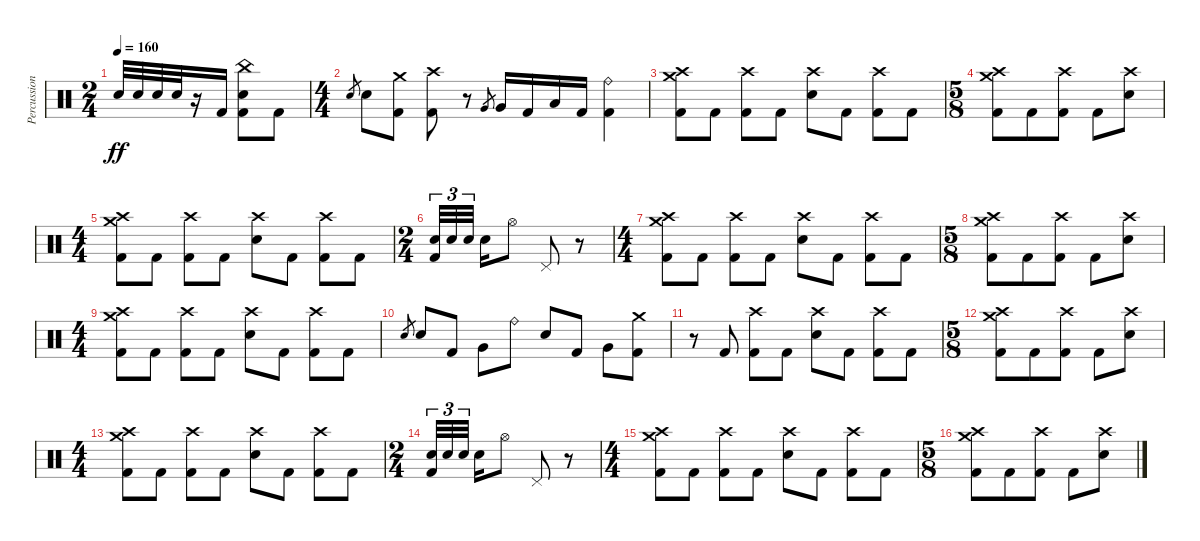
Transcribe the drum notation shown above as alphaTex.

\track ("Percussion" "Percussion") {instrument percussion}
\staff {score}
\articulation defaults
\ts (2 4)
\tempo 160
\clef neutral
\ks c "Electric Snare (hit)".32{dy ff} "Electric Snare (hit)".32 "Electric Snare (hit)".32 "Electric Snare (hit)".32
r.16 "Kick (hit) 2".16 ("China (hit)" "Electric Snare (hit)" "Kick (hit) 2").8 "Kick (hit) 2".8 |
\ts (4 4)
"Electric Snare (hit)".8{gr} "Electric Snare (hit)".8 ("Crash medium (hit)" "Kick (hit) 2").8 ("Crash high (hit)" "Kick (hit) 2").8 r.8 "Very Low Tom (hit)".8{gr} "Very Low Tom (hit)".16 "Kick (hit) 2".16 "Low Tom (hit)".16 "Kick (hit) 2".16 ("Ride (bell)" "Kick (hit) 2").4 |
("Crash high (hit)" "Crash medium (hit)" "Kick (hit) 2").8 "Kick (hit) 2".8 ("Crash high (hit)" "Kick (hit) 2").8 "Kick (hit) 2".8 ("Crash high (hit)" "Electric Snare (hit)").8 "Kick (hit) 2".8 ("Crash high (hit)" "Kick (hit) 2").8 "Kick (hit) 2".8 |
\ts (5 8)
("Crash high (hit)" "Crash medium (hit)" "Kick (hit) 2").8 "Kick (hit) 2".8 ("Crash high (hit)" "Kick (hit) 2").8 "Kick (hit) 2".8 ("Crash high (hit)" "Electric Snare (hit)").8 |
\ts (4 4)
("Crash high (hit)" "Crash medium (hit)" "Kick (hit) 2").8 "Kick (hit) 2".8 ("Crash high (hit)" "Kick (hit) 2").8 "Kick (hit) 2".8 ("Crash high (hit)" "Electric Snare (hit)").8 "Kick (hit) 2".8 ("Crash high (hit)" "Kick (hit) 2").8 "Kick (hit) 2".8 |
\ts (2 4)
("Electric Snare (hit)" "Kick (hit) 2").32{tu (3 2)} "Electric Snare (hit)".32{tu (3 2)} "Electric Snare (hit)".32{tu (3 2) beam splitsecondary} "Electric Snare (hit)".16 "Hi-Hat (open)".8 "Pedal Hi-Hat (hit)".8 r.8 |
\ts (4 4)
("Crash high (hit)" "Crash medium (hit)" "Kick (hit) 2").8 "Kick (hit) 2".8 ("Crash high (hit)" "Kick (hit) 2").8 "Kick (hit) 2".8 ("Crash high (hit)" "Electric Snare (hit)").8 "Kick (hit) 2".8 ("Crash high (hit)" "Kick (hit) 2").8 "Kick (hit) 2".8 |
\ts (5 8)
("Crash high (hit)" "Crash medium (hit)" "Kick (hit) 2").8 "Kick (hit) 2".8 ("Crash high (hit)" "Kick (hit) 2").8 "Kick (hit) 2".8 ("Crash high (hit)" "Electric Snare (hit)").8 |
\ts (4 4)
("Crash high (hit)" "Crash medium (hit)" "Kick (hit) 2").8 "Kick (hit) 2".8 ("Crash high (hit)" "Kick (hit) 2").8 "Kick (hit) 2".8 ("Crash high (hit)" "Electric Snare (hit)").8 "Kick (hit) 2".8 ("Crash high (hit)" "Kick (hit) 2").8 "Kick (hit) 2".8 |
"Electric Snare (hit)".8{gr} "Electric Snare (hit)".8 "Kick (hit) 2".8 "Very Low Tom (hit)".8 "Ride (bell)".8 "Electric Snare (hit)".8 "Kick (hit) 2".8 "Very Low Tom (hit)".8 ("Crash medium (hit)" "Kick (hit) 2").8 |
r.8 "Kick (hit) 2".8 ("Crash high (hit)" "Kick (hit) 2").8 "Kick (hit) 2".8 ("Crash high (hit)" "Electric Snare (hit)").8 "Kick (hit) 2".8 ("Crash high (hit)" "Kick (hit) 2").8 "Kick (hit) 2".8 |
\ts (5 8)
("Crash high (hit)" "Crash medium (hit)" "Kick (hit) 2").8 "Kick (hit) 2".8 ("Crash high (hit)" "Kick (hit) 2").8 "Kick (hit) 2".8 ("Crash high (hit)" "Electric Snare (hit)").8 |
\ts (4 4)
("Crash high (hit)" "Crash medium (hit)" "Kick (hit) 2").8 "Kick (hit) 2".8 ("Crash high (hit)" "Kick (hit) 2").8 "Kick (hit) 2".8 ("Crash high (hit)" "Electric Snare (hit)").8 "Kick (hit) 2".8 ("Crash high (hit)" "Kick (hit) 2").8 "Kick (hit) 2".8 |
\ts (2 4)
("Electric Snare (hit)" "Kick (hit) 2").32{tu (3 2)} "Electric Snare (hit)".32{tu (3 2)} "Electric Snare (hit)".32{tu (3 2) beam splitsecondary} "Electric Snare (hit)".16 "Hi-Hat (open)".8 "Pedal Hi-Hat (hit)".8 r.8 |
\ts (4 4)
("Crash high (hit)" "Crash medium (hit)" "Kick (hit) 2").8 "Kick (hit) 2".8 ("Crash high (hit)" "Kick (hit) 2").8 "Kick (hit) 2".8 ("Crash high (hit)" "Electric Snare (hit)").8 "Kick (hit) 2".8 ("Crash high (hit)" "Kick (hit) 2").8 "Kick (hit) 2".8 |
\ts (5 8)
("Crash high (hit)" "Crash medium (hit)" "Kick (hit) 2").8 "Kick (hit) 2".8 ("Crash high (hit)" "Kick (hit) 2").8 "Kick (hit) 2".8 ("Crash high (hit)" "Electric Snare (hit)").8
